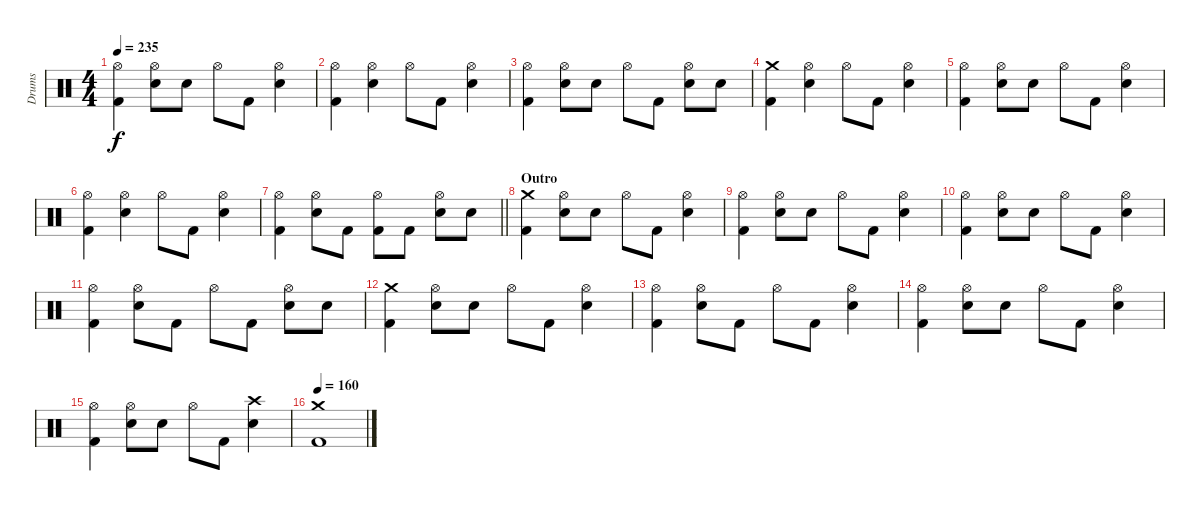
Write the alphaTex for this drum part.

\track ("Drums" "Drums") {instrument percussion}
\staff {score}
\articulation defaults
\ts (4 4)
\tempo 235
\clef neutral
\ks c
("Hi-Hat (open)" "Kick (hit) 2").4{dy f} ("Hi-Hat (open)" "Electric Snare (hit)").8 "Electric Snare (hit)".8 "Hi-Hat (open)".8 "Kick (hit) 2".8 ("Hi-Hat (open)" "Electric Snare (hit)").4 |
("Hi-Hat (open)" "Kick (hit) 2").4 ("Hi-Hat (open)" "Electric Snare (hit)").4 "Hi-Hat (open)".8 "Kick (hit) 2".8 ("Hi-Hat (open)" "Electric Snare (hit)").4 |
("Hi-Hat (open)" "Kick (hit) 2").4 ("Hi-Hat (open)" "Electric Snare (hit)").8 "Electric Snare (hit)".8 "Hi-Hat (open)".8 "Kick (hit) 2".8 ("Hi-Hat (open)" "Electric Snare (hit)").8 "Electric Snare (hit)".8 |
("Crash medium (hit)" "Kick (hit) 2").4 ("Hi-Hat (open)" "Electric Snare (hit)").4 "Hi-Hat (open)".8 "Kick (hit) 2".8 ("Hi-Hat (open)" "Electric Snare (hit)").4 |
("Hi-Hat (open)" "Kick (hit) 2").4 ("Hi-Hat (open)" "Electric Snare (hit)").8 "Electric Snare (hit)".8 "Hi-Hat (open)".8 "Kick (hit) 2".8 ("Hi-Hat (open)" "Electric Snare (hit)").4 |
("Hi-Hat (open)" "Kick (hit) 2").4 ("Hi-Hat (open)" "Electric Snare (hit)").4 "Hi-Hat (open)".8 "Kick (hit) 2".8 ("Hi-Hat (open)" "Electric Snare (hit)").4 |
\barLineRight lightlight
("Hi-Hat (open)" "Kick (hit) 2").4 ("Hi-Hat (open)" "Electric Snare (hit)").8 "Kick (hit) 2".8 ("Hi-Hat (open)" "Kick (hit) 2").8 "Kick (hit) 2".8 ("Hi-Hat (open)" "Electric Snare (hit)").8 "Electric Snare (hit)".8 |
\section ("" "Outro")
("Crash medium (hit)" "Kick (hit) 2").4 ("Hi-Hat (open)" "Electric Snare (hit)").8 "Electric Snare (hit)".8 "Hi-Hat (open)".8 "Kick (hit) 2".8 ("Hi-Hat (open)" "Electric Snare (hit)").4 |
("Hi-Hat (open)" "Kick (hit) 2").4 ("Hi-Hat (open)" "Electric Snare (hit)").8 "Electric Snare (hit)".8 "Hi-Hat (open)".8 "Kick (hit) 2".8 ("Hi-Hat (open)" "Electric Snare (hit)").4 |
("Hi-Hat (open)" "Kick (hit) 2").4 ("Hi-Hat (open)" "Electric Snare (hit)").8 "Electric Snare (hit)".8 "Hi-Hat (open)".8 "Kick (hit) 2".8 ("Hi-Hat (open)" "Electric Snare (hit)").4 |
("Hi-Hat (open)" "Kick (hit) 2").4 ("Hi-Hat (open)" "Electric Snare (hit)").8 "Kick (hit) 2".8 "Hi-Hat (open)".8 "Kick (hit) 2".8 ("Hi-Hat (open)" "Electric Snare (hit)").8 "Electric Snare (hit)".8 |
("Crash medium (hit)" "Kick (hit) 2").4 ("Hi-Hat (open)" "Electric Snare (hit)").8 "Electric Snare (hit)".8 "Hi-Hat (open)".8 "Kick (hit) 2".8 ("Hi-Hat (open)" "Electric Snare (hit)").4 |
("Hi-Hat (open)" "Kick (hit) 2").4 ("Hi-Hat (open)" "Electric Snare (hit)").8 "Kick (hit) 2".8 "Hi-Hat (open)".8 "Kick (hit) 2".8 ("Hi-Hat (open)" "Electric Snare (hit)").4 |
("Hi-Hat (open)" "Kick (hit) 2").4 ("Hi-Hat (open)" "Electric Snare (hit)").8 "Electric Snare (hit)".8 "Hi-Hat (open)".8 "Kick (hit) 2".8 ("Hi-Hat (open)" "Electric Snare (hit)").4 |
("Hi-Hat (open)" "Kick (hit) 2").4 ("Hi-Hat (open)" "Electric Snare (hit)").8 "Electric Snare (hit)".8 "Hi-Hat (open)".8 "Kick (hit) 2".8 ("Crash high (hit)" "Electric Snare (hit)").4 |
\tempo 160
("Crash medium (hit)" "Kick (hit) 2").1
